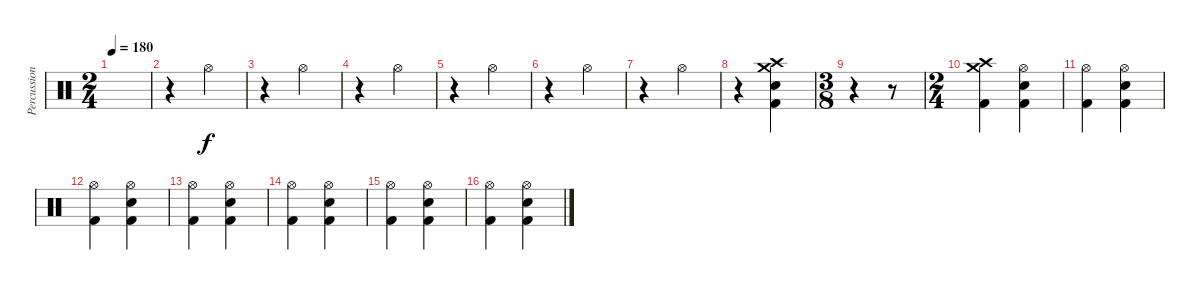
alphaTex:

\track ("Percussion" "Percussion") {instrument percussion}
\staff {score}
\articulation defaults
\ts (2 4)
\tempo 180
\clef neutral
\ks c
|
r.4 "Hi-Hat (open)".4 |
r.4 "Hi-Hat (open)".4 |
r.4 "Hi-Hat (open)".4 |
r.4 "Hi-Hat (open)".4 |
r.4 "Hi-Hat (open)".4 |
r.4 "Hi-Hat (open)".4 |
r.4 ("Crash high (hit)" "Crash medium (hit)" "Snare (hit) 2" "Kick (hit) 2").4{volume 16} |
\ts (3 8)
r.4 r.8 |
\ts (2 4)
("Crash high (hit)" "Crash medium (hit)" "Kick (hit) 2").4 ("Hi-Hat (open)" "Snare (hit) 2" "Kick (hit) 2").4 |
("Hi-Hat (open)" "Kick (hit) 2").4 ("Hi-Hat (open)" "Snare (hit) 2" "Kick (hit) 2").4 |
("Hi-Hat (open)" "Kick (hit) 2").4 ("Hi-Hat (open)" "Snare (hit) 2" "Kick (hit) 2").4 |
("Hi-Hat (open)" "Kick (hit) 2").4 ("Hi-Hat (open)" "Snare (hit) 2" "Kick (hit) 2").4 |
("Hi-Hat (open)" "Kick (hit) 2").4 ("Hi-Hat (open)" "Snare (hit) 2" "Kick (hit) 2").4 |
("Hi-Hat (open)" "Kick (hit) 2").4 ("Hi-Hat (open)" "Snare (hit) 2" "Kick (hit) 2").4 |
("Hi-Hat (open)" "Kick (hit) 2").4 ("Hi-Hat (open)" "Snare (hit) 2" "Kick (hit) 2").4
